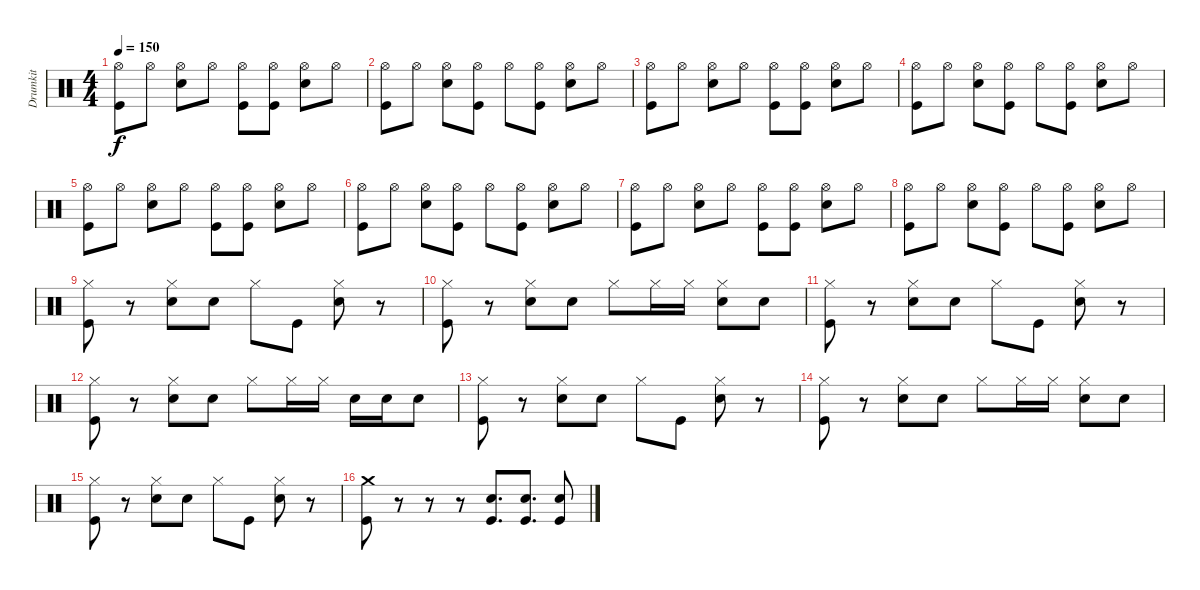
\track ("Drumkit" "Drumkit") {instrument percussion}
\staff {score}
\articulation defaults
\ts (4 4)
\tempo 150
\clef neutral
\ks c
("Kick (hit)" "Hi-Hat (open)").8{dy f} "Hi-Hat (open)".8 ("Snare (hit) 2" "Hi-Hat (open)").8 "Hi-Hat (open)".8 ("Kick (hit)" "Hi-Hat (open)").8 ("Kick (hit)" "Hi-Hat (open)").8 ("Snare (hit) 2" "Hi-Hat (open)").8 "Hi-Hat (open)".8 |
("Kick (hit)" "Hi-Hat (open)").8 "Hi-Hat (open)".8 ("Snare (hit) 2" "Hi-Hat (open)").8 ("Hi-Hat (open)" "Kick (hit)").8 "Hi-Hat (open)".8 ("Kick (hit)" "Hi-Hat (open)").8 ("Snare (hit) 2" "Hi-Hat (open)").8 "Hi-Hat (open)".8 |
("Kick (hit)" "Hi-Hat (open)").8 "Hi-Hat (open)".8 ("Snare (hit) 2" "Hi-Hat (open)").8 "Hi-Hat (open)".8 ("Kick (hit)" "Hi-Hat (open)").8 ("Kick (hit)" "Hi-Hat (open)").8 ("Snare (hit) 2" "Hi-Hat (open)").8 "Hi-Hat (open)".8 |
("Kick (hit)" "Hi-Hat (open)").8 "Hi-Hat (open)".8 ("Snare (hit) 2" "Hi-Hat (open)").8 ("Hi-Hat (open)" "Kick (hit)").8 "Hi-Hat (open)".8 ("Kick (hit)" "Hi-Hat (open)").8 ("Snare (hit) 2" "Hi-Hat (open)").8 "Hi-Hat (open)".8 |
("Kick (hit)" "Hi-Hat (open)").8 "Hi-Hat (open)".8 ("Snare (hit) 2" "Hi-Hat (open)").8 "Hi-Hat (open)".8 ("Kick (hit)" "Hi-Hat (open)").8 ("Kick (hit)" "Hi-Hat (open)").8 ("Snare (hit) 2" "Hi-Hat (open)").8 "Hi-Hat (open)".8 |
("Kick (hit)" "Hi-Hat (open)").8 "Hi-Hat (open)".8 ("Snare (hit) 2" "Hi-Hat (open)").8 ("Hi-Hat (open)" "Kick (hit)").8 "Hi-Hat (open)".8 ("Kick (hit)" "Hi-Hat (open)").8 ("Snare (hit) 2" "Hi-Hat (open)").8 "Hi-Hat (open)".8 |
("Kick (hit)" "Hi-Hat (open)").8 "Hi-Hat (open)".8 ("Snare (hit) 2" "Hi-Hat (open)").8 "Hi-Hat (open)".8 ("Kick (hit)" "Hi-Hat (open)").8 ("Kick (hit)" "Hi-Hat (open)").8 ("Snare (hit) 2" "Hi-Hat (open)").8 "Hi-Hat (open)".8 |
("Kick (hit)" "Hi-Hat (open)").8 "Hi-Hat (open)".8 ("Snare (hit) 2" "Hi-Hat (open)").8 ("Hi-Hat (open)" "Kick (hit)").8 "Hi-Hat (open)".8 ("Kick (hit)" "Hi-Hat (open)").8 ("Snare (hit) 2" "Hi-Hat (open)").8 "Hi-Hat (open)".8 |
("Kick (hit)" "Hi-Hat (closed)").8 r.8 ("Hi-Hat (closed)" "Snare (hit) 2").8 "Snare (hit) 2".8 "Hi-Hat (closed)".8 "Kick (hit)".8 ("Hi-Hat (closed)" "Snare (hit) 2").8 r.8 |
("Kick (hit)" "Hi-Hat (closed)").8 r.8 ("Hi-Hat (closed)" "Snare (hit) 2").8 "Snare (hit) 2".8 "Hi-Hat (closed)".8 "Hi-Hat (closed)".16 "Hi-Hat (closed)".16 ("Hi-Hat (closed)" "Snare (hit) 2").8 "Snare (hit) 2".8 |
("Kick (hit)" "Hi-Hat (closed)").8 r.8 ("Hi-Hat (closed)" "Snare (hit) 2").8 "Snare (hit) 2".8 "Hi-Hat (closed)".8 "Kick (hit)".8 ("Hi-Hat (closed)" "Snare (hit) 2").8 r.8 |
("Kick (hit)" "Hi-Hat (closed)").8 r.8 ("Hi-Hat (closed)" "Snare (hit) 2").8 "Snare (hit) 2".8 "Hi-Hat (closed)".8 "Hi-Hat (closed)".16 "Hi-Hat (closed)".16 "Snare (hit) 2".16 "Snare (hit) 2".16 "Snare (hit) 2".8 |
("Kick (hit)" "Hi-Hat (closed)").8 r.8 ("Hi-Hat (closed)" "Snare (hit) 2").8 "Snare (hit) 2".8 "Hi-Hat (closed)".8 "Kick (hit)".8 ("Hi-Hat (closed)" "Snare (hit) 2").8 r.8 |
("Kick (hit)" "Hi-Hat (closed)").8 r.8 ("Hi-Hat (closed)" "Snare (hit) 2").8 "Snare (hit) 2".8 "Hi-Hat (closed)".8 "Hi-Hat (closed)".16 "Hi-Hat (closed)".16 ("Hi-Hat (closed)" "Snare (hit) 2").8 "Snare (hit) 2".8 |
("Kick (hit)" "Hi-Hat (closed)").8 r.8 ("Hi-Hat (closed)" "Snare (hit) 2").8 "Snare (hit) 2".8 "Hi-Hat (closed)".8 "Kick (hit)".8 ("Hi-Hat (closed)" "Snare (hit) 2").8 r.8 |
("Kick (hit)" "Crash medium (hit)").8 r.8 r.8 r.8 ("Snare (hit) 2" "Kick (hit)").8{d} ("Snare (hit) 2" "Kick (hit)").8{d} ("Snare (hit) 2" "Kick (hit)").8
